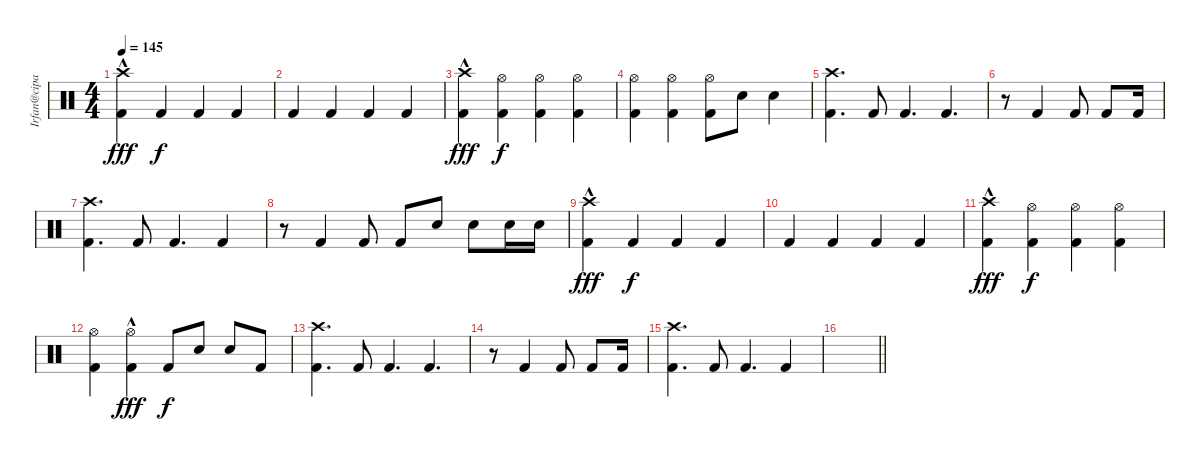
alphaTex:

\track ("Irfan@cipan" "Irfan@cipa") {instrument percussion}
\staff {score}
\articulation defaults
\ts (4 4)
\tempo 145
\clef neutral
\ks c
("Crash high (hit)"{hac} "Kick (hit) 2").4{dy fff} "Kick (hit) 2".4{dy f} "Kick (hit) 2".4 "Kick (hit) 2".4 |
"Kick (hit) 2".4 "Kick (hit) 2".4 "Kick (hit) 2".4 "Kick (hit) 2".4 |
("Crash high (hit)"{hac} "Kick (hit) 2").4{dy fff} ("Hi-Hat (open)" "Kick (hit) 2").4{dy f} ("Hi-Hat (open)" "Kick (hit) 2").4 ("Hi-Hat (open)" "Kick (hit) 2").4 |
("Hi-Hat (open)" "Kick (hit) 2").4 ("Hi-Hat (open)" "Kick (hit) 2").4 ("Hi-Hat (open)" "Kick (hit) 2").8 "Electric Snare (hit)".8 "Electric Snare (hit)".4 |
("Crash high (hit)" "Kick (hit) 2").4{d} "Kick (hit) 2".8 "Kick (hit) 2".4{d} "Kick (hit) 2".4{d} |
r.8 "Kick (hit) 2".4 "Kick (hit) 2".8 "Kick (hit) 2".8 "Kick (hit) 2".16 |
("Crash high (hit)" "Kick (hit) 2").4{d} "Kick (hit) 2".8 "Kick (hit) 2".4{d} "Kick (hit) 2".4 |
r.8 "Kick (hit) 2".4 "Kick (hit) 2".8 "Kick (hit) 2".8 "Electric Snare (hit)".8 "Electric Snare (hit)".8 "Electric Snare (hit)".16 "Electric Snare (hit)".16 |
("Crash high (hit)"{hac} "Kick (hit) 2").4{dy fff} "Kick (hit) 2".4{dy f} "Kick (hit) 2".4 "Kick (hit) 2".4 |
"Kick (hit) 2".4 "Kick (hit) 2".4 "Kick (hit) 2".4 "Kick (hit) 2".4 |
("Crash high (hit)"{hac} "Kick (hit) 2").4{dy fff} ("Hi-Hat (open)" "Kick (hit) 2").4{dy f} ("Hi-Hat (open)" "Kick (hit) 2").4 ("Hi-Hat (open)" "Kick (hit) 2").4 |
("Hi-Hat (open)" "Kick (hit) 2").4 ("Hi-Hat (open)"{hac} "Kick (hit) 2").4{dy fff} "Kick (hit) 2".8{dy f} "Electric Snare (hit)".8 "Electric Snare (hit)".8 "Kick (hit) 2".8 |
("Crash high (hit)" "Kick (hit) 2").4{d} "Kick (hit) 2".8 "Kick (hit) 2".4{d} "Kick (hit) 2".4{d} |
r.8 "Kick (hit) 2".4 "Kick (hit) 2".8 "Kick (hit) 2".8 "Kick (hit) 2".16 |
("Crash high (hit)" "Kick (hit) 2").4{d} "Kick (hit) 2".8 "Kick (hit) 2".4{d} "Kick (hit) 2".4 |
\barLineRight lightlight
